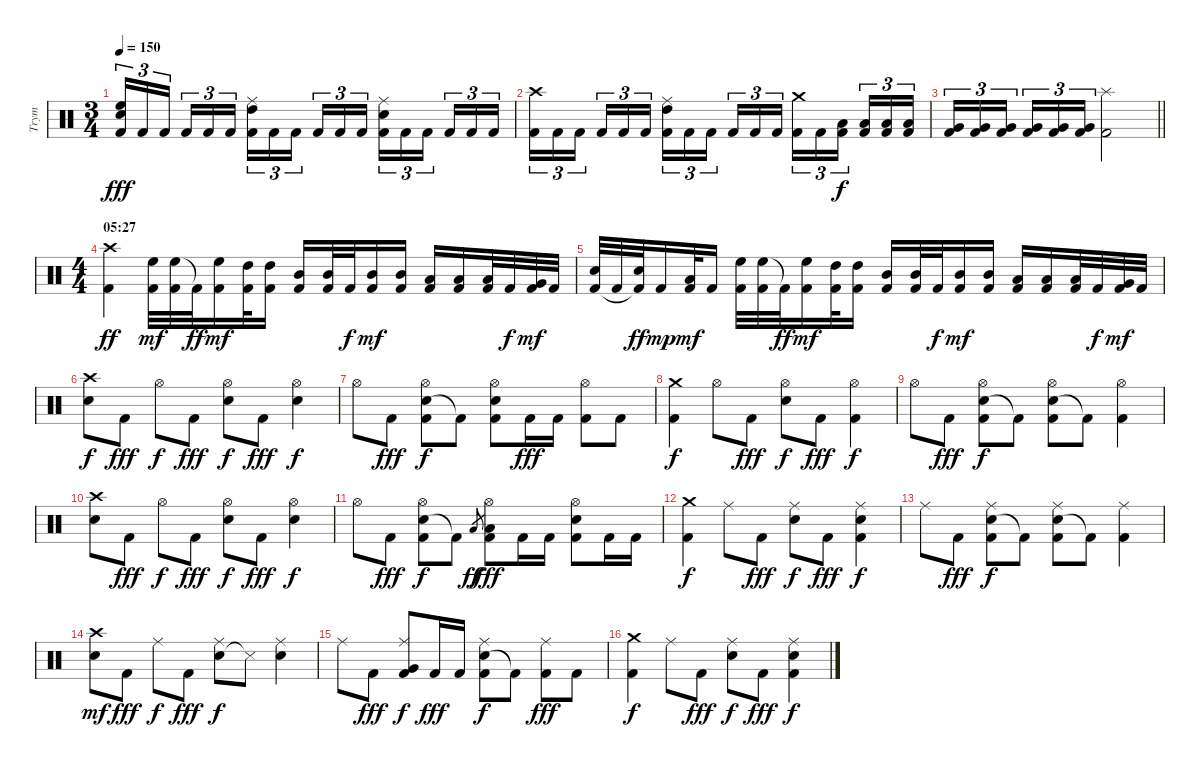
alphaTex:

\track ("Trym" "Trym") {instrument percussion}
\staff {score}
\articulation defaults
\ts (3 4)
\tempo 150
\clef neutral
\ks c
("Snare (hit) 2" "High Floor Tom (hit)" "Kick (hit) 2").16{tu (3 2) dy fff} "Kick (hit) 2".16{tu (3 2)} "Kick (hit) 2".16{tu (3 2) beam splitsecondary} "Kick (hit) 2".16{tu (3 2)} "Kick (hit) 2".16{tu (3 2)} "Kick (hit) 2".16{tu (3 2)} ("High Tom (hit)" "Ride (middle)" "Kick (hit) 2").16{tu (3 2)} "Kick (hit) 2".16{tu (3 2)} "Kick (hit) 2".16{tu (3 2) beam splitsecondary} "Kick (hit) 2".16{tu (3 2)} "Kick (hit) 2".16{tu (3 2)} "Kick (hit) 2".16{tu (3 2)} ("Snare (hit) 2" "Ride (middle)" "Kick (hit) 2").16{tu (3 2)} "Kick (hit) 2".16{tu (3 2)} "Kick (hit) 2".16{tu (3 2) beam splitsecondary} "Kick (hit) 2".16{tu (3 2)} "Kick (hit) 2".16{tu (3 2)} "Kick (hit) 2".16{tu (3 2)} |
("Crash high (hit)" "Kick (hit) 2").16{tu (3 2)} "Kick (hit) 2".16{tu (3 2)} "Kick (hit) 2".16{tu (3 2) beam splitsecondary} "Kick (hit) 2".16{tu (3 2)} "Kick (hit) 2".16{tu (3 2)} "Kick (hit) 2".16{tu (3 2)} ("High Tom (hit)" "Ride (middle)" "Kick (hit) 2").16{tu (3 2)} "Kick (hit) 2".16{tu (3 2)} "Kick (hit) 2".16{tu (3 2) beam splitsecondary} "Kick (hit) 2".16{tu (3 2)} "Kick (hit) 2".16{tu (3 2)} "Kick (hit) 2".16{tu (3 2)} ("Crash medium (hit)" "Kick (hit) 2").16{tu (3 2)} "Kick (hit) 2".16{tu (3 2)} ("Low Floor Tom (hit)" "Kick (hit) 2").16{tu (3 2) dy f beam splitsecondary} ("Low Floor Tom (hit)" "Kick (hit) 2").16{tu (3 2)} ("Low Floor Tom (hit)" "Kick (hit) 2").16{tu (3 2)} ("Low Floor Tom (hit)" "Kick (hit) 2").16{tu (3 2)} |
\barLineRight lightlight
("Very Low Tom (hit)" "Kick (hit) 2").16{tu (3 2)} ("Very Low Tom (hit)" "Kick (hit) 2").16{tu (3 2)} ("Very Low Tom (hit)" "Kick (hit) 2").16{tu (3 2) beam splitsecondary} ("Very Low Tom (hit)" "Kick (hit) 2").16{tu (3 2)} ("Very Low Tom (hit)" "Kick (hit) 2").16{tu (3 2)} ("Very Low Tom (hit)" "Kick (hit) 2").16{tu (3 2)} ("Splash (hit)" "Kick (hit) 2").2 |
\ts (4 4)
\section ("" "05:27")
("Crash high (hit)" "Kick (hit) 2").4{dy ff} ("High Floor Tom (hit)" "Kick (hit) 2").32{dy mf} ("High Floor Tom (hit)" "Kick (hit) 2").32 "Kick (hit) 2"{t}.32{dy ff} ("High Floor Tom (hit)" "Kick (hit) 2").16{dy mf} ("High Tom (hit)" "Kick (hit) 2").32 ("High Tom (hit)" "Kick (hit) 2").16 ("Mid Tom (hit)" "Kick (hit) 2").16 ("Mid Tom (hit)" "Kick (hit) 2").32 "Kick (hit) 2".32{dy f} ("Mid Tom (hit)" "Kick (hit) 2").16{dy mf} ("Mid Tom (hit)" "Kick (hit) 2").16 ("Low Tom (hit)" "Kick (hit) 2").16 ("Low Tom (hit)" "Kick (hit) 2").16 ("Low Tom (hit)" "Kick (hit) 2").32 "Kick (hit) 2".32{dy f} ("Very Low Tom (hit)" "Kick (hit) 2").32{dy mf} "Kick (hit) 2".32 |
("Snare (hit) 2" "Kick (hit) 2").32 "Kick (hit) 2".32 ("Snare (hit) 2" "Kick (hit) 2"{t}).32{dy ff} "Kick (hit) 2".16{dy mp} ("Low Tom (hit)" "Kick (hit) 2").32{dy mf} "Kick (hit) 2".16 ("High Floor Tom (hit)" "Kick (hit) 2").32 ("High Floor Tom (hit)" "Kick (hit) 2").32 "Kick (hit) 2"{t}.32{dy ff} ("High Floor Tom (hit)" "Kick (hit) 2").16{dy mf} ("High Tom (hit)" "Kick (hit) 2").32 ("High Tom (hit)" "Kick (hit) 2").16 ("Mid Tom (hit)" "Kick (hit) 2").16 ("Mid Tom (hit)" "Kick (hit) 2").32 "Kick (hit) 2".32{dy f} ("Mid Tom (hit)" "Kick (hit) 2").16{dy mf} ("Mid Tom (hit)" "Kick (hit) 2").16 ("Low Tom (hit)" "Kick (hit) 2").16 ("Low Tom (hit)" "Kick (hit) 2").16 ("Low Tom (hit)" "Kick (hit) 2").32 "Kick (hit) 2".32{dy f} ("Very Low Tom (hit)" "Kick (hit) 2").32{dy mf} "Kick (hit) 2".32 |
("Crash high (hit)" "Snare (hit) 2").8{dy f} "Kick (hit) 2".8{dy fff} "Hi-Hat (open)".8{dy f} "Kick (hit) 2".8{dy fff} ("Snare (hit) 2" "Hi-Hat (open)").8{dy f} "Kick (hit) 2".8{dy fff} ("Snare (hit) 2" "Hi-Hat (open)").4{dy f} |
"Hi-Hat (open)".8 "Kick (hit) 2".8{dy fff} ("Snare (hit) 2" "Hi-Hat (open)" "Kick (hit) 2").8{dy f} "Kick (hit) 2"{t}.8 ("Snare (hit) 2" "Hi-Hat (open)" "Kick (hit) 2").8 "Kick (hit) 2".16{dy fff} "Kick (hit) 2".16 ("Hi-Hat (open)" "Kick (hit) 2").8 "Kick (hit) 2".8 |
("Crash medium (hit)" "Kick (hit) 2").4{dy f} "Hi-Hat (open)".8 "Kick (hit) 2".8{dy fff} ("Snare (hit) 2" "Hi-Hat (open)").8{dy f} "Kick (hit) 2".8{dy fff} ("Hi-Hat (open)" "Kick (hit) 2").4{dy f} |
"Hi-Hat (open)".8 "Kick (hit) 2".8{dy fff} ("Snare (hit) 2" "Hi-Hat (open)" "Kick (hit) 2").8{dy f} "Kick (hit) 2"{t}.8 ("Snare (hit) 2" "Hi-Hat (open)" "Kick (hit) 2").8 "Kick (hit) 2"{t}.8 ("Hi-Hat (open)" "Kick (hit) 2").4 |
("Crash high (hit)" "Snare (hit) 2").8 "Kick (hit) 2".8{dy fff} "Hi-Hat (open)".8{dy f} "Kick (hit) 2".8{dy fff} ("Snare (hit) 2" "Hi-Hat (open)").8{dy f} "Kick (hit) 2".8{dy fff} ("Snare (hit) 2" "Hi-Hat (open)").4{dy f} |
"Hi-Hat (open)".8 "Kick (hit) 2".8{dy fff} ("Snare (hit) 2" "Hi-Hat (open)" "Kick (hit) 2").8{dy f} "Kick (hit) 2"{t}.8 "Low Tom (hit)".8{gr dy ff} ("Low Tom (hit)" "Hi-Hat (open)" "Kick (hit) 2").8{dy fff} "Kick (hit) 2".16 "Kick (hit) 2".16 ("Snare (hit) 2" "Hi-Hat (open)" "Kick (hit) 2").8 "Kick (hit) 2".16 "Kick (hit) 2".16 |
("Crash medium (hit)" "Kick (hit) 2").4{dy f} "Ride (middle)".8 "Kick (hit) 2".8{dy fff} ("Snare (hit) 2" "Ride (middle)").8{dy f} "Kick (hit) 2".8{dy fff} ("Snare (hit) 2" "Ride (middle)" "Kick (hit) 2").4{dy f} |
"Ride (middle)".8 "Kick (hit) 2".8{dy fff} ("Snare (hit) 2" "Ride (middle)" "Kick (hit) 2").8{dy f} "Kick (hit) 2"{t}.8 ("Snare (hit) 2" "Ride (middle)" "Kick (hit) 2").8 "Kick (hit) 2"{t}.8 ("Ride (middle)" "Kick (hit) 2").4 |
("Crash high (hit)" "Snare (hit) 2").8{dy mf} "Kick (hit) 2".8{dy fff} "Ride (middle)".8{dy f} "Kick (hit) 2".8{dy fff} ("Snare (hit) 2" "Ride (middle)").8{dy f} "Metronome (hit)"{t}.8 ("Snare (hit) 2" "Ride (middle)").4 |
"Ride (middle)".8 "Kick (hit) 2".8{dy fff} ("Very Low Tom (hit)" "Ride (middle)" "Kick (hit) 2").8{dy f} "Kick (hit) 2".16{dy fff} "Kick (hit) 2".16 ("Snare (hit) 2" "Ride (middle)" "Kick (hit) 2").8{dy f} "Kick (hit) 2"{t}.8 ("Ride (middle)" "Kick (hit) 2").8{dy fff} "Kick (hit) 2".8 |
("Crash medium (hit)" "Kick (hit) 2").4{dy f} "Ride (middle)".8 "Kick (hit) 2".8{dy fff} ("Snare (hit) 2" "Ride (middle)").8{dy f} "Kick (hit) 2".8{dy fff} ("Snare (hit) 2" "Ride (middle)" "Kick (hit) 2").4{dy f}
